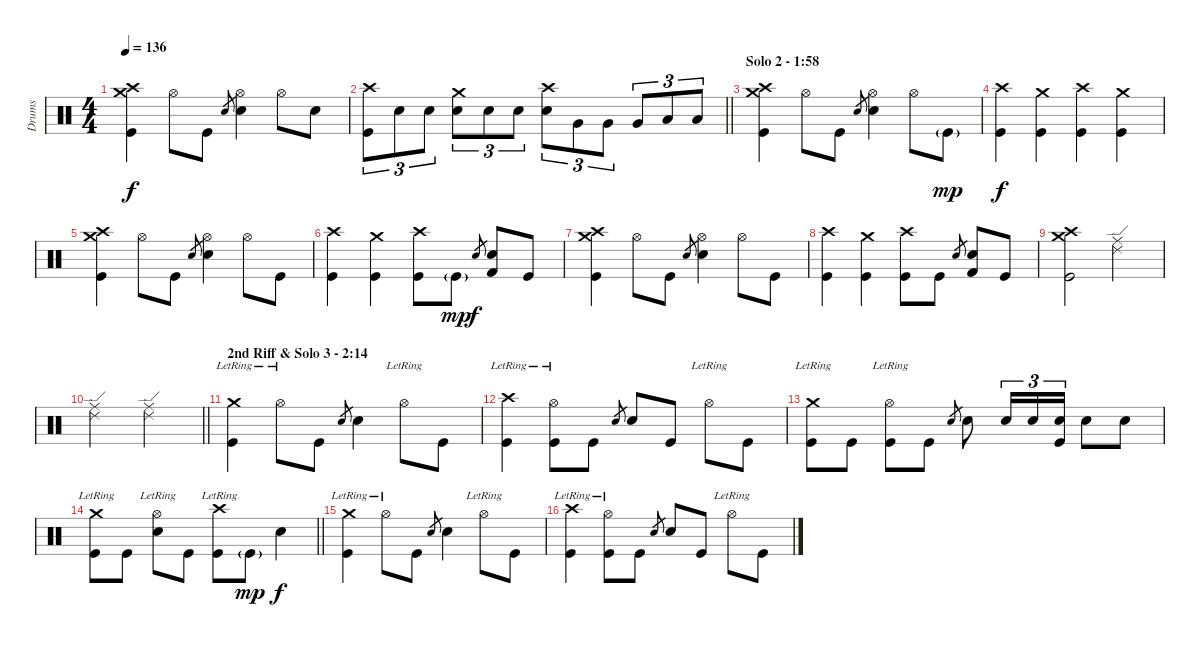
\track ("Drums" "Drums") {instrument percussion}
\staff {score}
\articulation defaults
\ts (4 4)
\tempo 136
\clef neutral
\ks c
("Crash medium (hit)" "Crash high (hit)" "Kick (hit)").4{dy f} "Hi-Hat (open)".8 "Kick (hit)".8 "Snare (hit) 2".8{gr} ("Hi-Hat (open)" "Snare (hit) 2").4 "Hi-Hat (open)".8 "Snare (hit) 2".8 |
\barLineRight lightlight
("Crash high (hit)" "Kick (hit)").8{tu (3 2)} "Snare (hit) 2".8{tu (3 2)} "Snare (hit) 2".8{tu (3 2)} ("Crash medium (hit)" "Snare (hit) 2").8{tu (3 2)} "Snare (hit) 2".8{tu (3 2)} "Snare (hit) 2".8{tu (3 2)} ("Crash high (hit)" "Snare (hit) 2").8{tu (3 2)} "Very Low Tom (hit)".8{tu (3 2)} "Very Low Tom (hit)".8{tu (3 2)} "Very Low Tom (hit)".8{tu (3 2)} "Low Floor Tom (hit)".8{tu (3 2)} "Low Floor Tom (hit)".8{tu (3 2)} |
\section ("" "Solo 2 - 1:58")
("Crash medium (hit)" "Crash high (hit)" "Kick (hit)").4 "Hi-Hat (open)".8 "Kick (hit)".8 "Snare (hit) 2".8{gr} ("Hi-Hat (open)" "Snare (hit) 2").4 "Hi-Hat (open)".8 "Kick (hit)"{g}.8{dy mp} |
("Crash high (hit)" "Kick (hit)").4{dy f} ("Crash medium (hit)" "Kick (hit)").4 ("Crash high (hit)" "Kick (hit)").4 ("Crash medium (hit)" "Kick (hit)").4 |
("Crash medium (hit)" "Crash high (hit)" "Kick (hit)").4 "Hi-Hat (open)".8 "Kick (hit)".8 "Snare (hit) 2".8{gr} ("Hi-Hat (open)" "Snare (hit) 2").4 "Hi-Hat (open)".8 "Kick (hit)".8 |
("Crash high (hit)" "Kick (hit)").4 ("Crash medium (hit)" "Kick (hit)").4 ("Crash high (hit)" "Kick (hit)").8 "Kick (hit)"{g}.8{dy mp} "Snare (hit) 2".8{gr dy f} ("Snare (hit) 2" "Kick (hit) 2").8 "Kick (hit)".8 |
("Crash medium (hit)" "Crash high (hit)" "Kick (hit)").4 "Hi-Hat (open)".8 "Kick (hit)".8 "Snare (hit) 2".8{gr} ("Hi-Hat (open)" "Snare (hit) 2").4 "Hi-Hat (open)".8 "Kick (hit)".8 |
("Crash high (hit)" "Kick (hit)").4 ("Crash medium (hit)" "Kick (hit)").4 ("Crash high (hit)" "Kick (hit)").8 "Kick (hit)".8 "Snare (hit) 2".8{gr} ("Snare (hit) 2" "Kick (hit) 2").8 "Kick (hit)".8 |
("Crash medium (hit)" "Crash high (hit)" "Kick (hit)").2 ("Ride (edge) 2" "Ride (middle)").2 |
\barLineRight lightlight
("Ride (edge) 2" "Ride (middle)").2 ("Ride (edge) 2" "Ride (middle)").2 |
\section ("" "2nd Riff & Solo 3 - 2:14")
("Crash medium (hit)"{lr} "Kick (hit)").4 "Hi-Hat (open)"{lr}.8 "Kick (hit)".8 "Snare (hit) 2".8{gr} "Snare (hit) 2".4 "Hi-Hat (open)"{lr}.8 "Kick (hit)".8 |
("Crash high (hit)"{lr} "Kick (hit)").4 ("Hi-Hat (open)"{lr} "Kick (hit)").8 "Kick (hit)".8 "Snare (hit) 2".8{gr} "Snare (hit) 2".8 "Kick (hit)".8 "Hi-Hat (open)"{lr}.8 "Kick (hit)".8 |
("Crash medium (hit)"{lr} "Kick (hit)").8 "Kick (hit)".8 ("Hi-Hat (open)"{lr} "Kick (hit)").8 "Kick (hit)".8 "Snare (hit) 2".8{gr} "Snare (hit) 2".8 "Snare (hit) 2".16{tu (3 2)} "Snare (hit) 2".16{tu (3 2)} ("Snare (hit) 2" "Kick (hit)").16{tu (3 2)} "Snare (hit) 2".8 "Snare (hit) 2".8 |
\barLineRight lightlight
("Crash medium (hit)"{lr} "Kick (hit)").8 "Kick (hit)".8 ("Hi-Hat (open)"{lr} "Snare (hit) 2").8 "Kick (hit)".8 ("Crash high (hit)"{lr} "Kick (hit)").8 "Kick (hit)"{g}.8{dy mp} "Snare (hit) 2".4{dy f} |
("Crash medium (hit)"{lr} "Kick (hit)").4 "Hi-Hat (open)"{lr}.8 "Kick (hit)".8 "Snare (hit) 2".8{gr} "Snare (hit) 2".4 "Hi-Hat (open)"{lr}.8 "Kick (hit)".8 |
("Crash high (hit)"{lr} "Kick (hit)").4 ("Hi-Hat (open)"{lr} "Kick (hit)").8 "Kick (hit)".8 "Snare (hit) 2".8{gr} "Snare (hit) 2".8 "Kick (hit)".8 "Hi-Hat (open)"{lr}.8 "Kick (hit)".8
